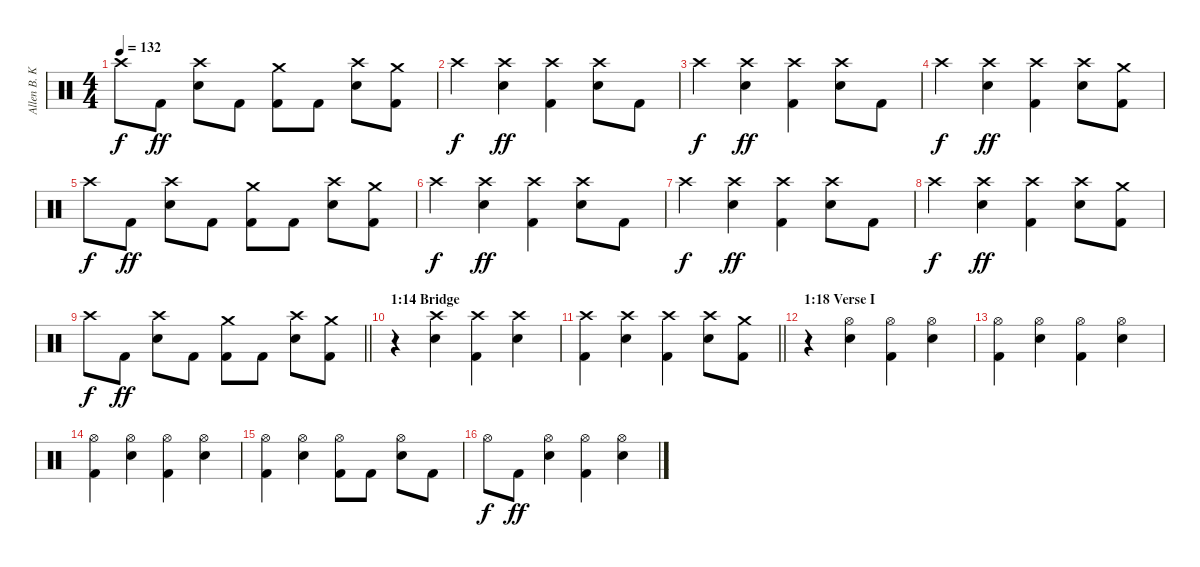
\track ("Allen B. Konstanz (Drums)" "Allen B. K") {instrument percussion}
\staff {score}
\articulation defaults
\ts (4 4)
\tempo 132
\clef neutral
\ks c "Crash high (hit)".8{dy f} "Kick (hit) 2".8{dy ff}
("Electric Snare (hit)" "Crash high (hit)").8 "Kick (hit) 2".8 ("Kick (hit) 2" "Crash medium (hit)").8 "Kick (hit) 2".8 ("Electric Snare (hit)" "Crash high (hit)").8 ("Kick (hit) 2" "Crash medium (hit)").8 |
"Crash high (hit)".4{dy f} ("Electric Snare (hit)" "Crash high (hit)").4{dy ff} ("Kick (hit) 2" "Crash high (hit)").4 ("Electric Snare (hit)" "Crash high (hit)").8 "Kick (hit) 2".8 |
"Crash high (hit)".4{dy f} ("Electric Snare (hit)" "Crash high (hit)").4{dy ff} ("Kick (hit) 2" "Crash high (hit)").4 ("Electric Snare (hit)" "Crash high (hit)").8 "Kick (hit) 2".8 |
"Crash high (hit)".4{dy f} ("Electric Snare (hit)" "Crash high (hit)").4{dy ff} ("Kick (hit) 2" "Crash high (hit)").4 ("Electric Snare (hit)" "Crash high (hit)").8 ("Kick (hit) 2" "Crash medium (hit)").8 |
"Crash high (hit)".8{dy f} "Kick (hit) 2".8{dy ff} ("Electric Snare (hit)" "Crash high (hit)").8 "Kick (hit) 2".8 ("Kick (hit) 2" "Crash medium (hit)").8 "Kick (hit) 2".8 ("Electric Snare (hit)" "Crash high (hit)").8 ("Kick (hit) 2" "Crash medium (hit)").8 |
"Crash high (hit)".4{dy f} ("Electric Snare (hit)" "Crash high (hit)").4{dy ff} ("Kick (hit) 2" "Crash high (hit)").4 ("Electric Snare (hit)" "Crash high (hit)").8 "Kick (hit) 2".8 |
"Crash high (hit)".4{dy f} ("Electric Snare (hit)" "Crash high (hit)").4{dy ff} ("Kick (hit) 2" "Crash high (hit)").4 ("Electric Snare (hit)" "Crash high (hit)").8 "Kick (hit) 2".8 |
"Crash high (hit)".4{dy f} ("Electric Snare (hit)" "Crash high (hit)").4{dy ff} ("Kick (hit) 2" "Crash high (hit)").4 ("Electric Snare (hit)" "Crash high (hit)").8 ("Kick (hit) 2" "Crash medium (hit)").8 |
\barLineRight lightlight "Crash high (hit)".8{dy f} "Kick (hit) 2".8{dy ff}
("Electric Snare (hit)" "Crash high (hit)").8 "Kick (hit) 2".8 ("Kick (hit) 2" "Crash medium (hit)").8 "Kick (hit) 2".8 ("Electric Snare (hit)" "Crash high (hit)").8 ("Kick (hit) 2" "Crash medium (hit)").8 |
\section ("" "1:14 Bridge")
r.4 ("Electric Snare (hit)" "Crash high (hit)").4 ("Kick (hit) 2" "Crash high (hit)").4 ("Electric Snare (hit)" "Crash high (hit)").4 |
\barLineRight lightlight
("Kick (hit) 2" "Crash high (hit)").4 ("Electric Snare (hit)" "Crash high (hit)").4 ("Kick (hit) 2" "Crash high (hit)").4 ("Electric Snare (hit)" "Crash high (hit)").8 ("Kick (hit) 2" "Crash medium (hit)").8 |
\section ("" "1:18 Verse I")
r.4 ("Electric Snare (hit)" "Hi-Hat (open)").4 ("Kick (hit) 2" "Hi-Hat (open)").4 ("Electric Snare (hit)" "Hi-Hat (open)").4 |
("Kick (hit) 2" "Hi-Hat (open)").4 ("Electric Snare (hit)" "Hi-Hat (open)").4 ("Kick (hit) 2" "Hi-Hat (open)").4 ("Electric Snare (hit)" "Hi-Hat (open)").4 |
("Kick (hit) 2" "Hi-Hat (open)").4 ("Electric Snare (hit)" "Hi-Hat (open)").4 ("Kick (hit) 2" "Hi-Hat (open)").4 ("Electric Snare (hit)" "Hi-Hat (open)").4 |
("Kick (hit) 2" "Hi-Hat (open)").4 ("Electric Snare (hit)" "Hi-Hat (open)").4 ("Kick (hit) 2" "Hi-Hat (open)").8 "Kick (hit) 2".8 ("Electric Snare (hit)" "Hi-Hat (open)").8 "Kick (hit) 2".8 |
"Hi-Hat (open)".8{dy f} "Kick (hit) 2".8{dy ff} ("Electric Snare (hit)" "Hi-Hat (open)").4 ("Kick (hit) 2" "Hi-Hat (open)").4 ("Electric Snare (hit)" "Hi-Hat (open)").4
